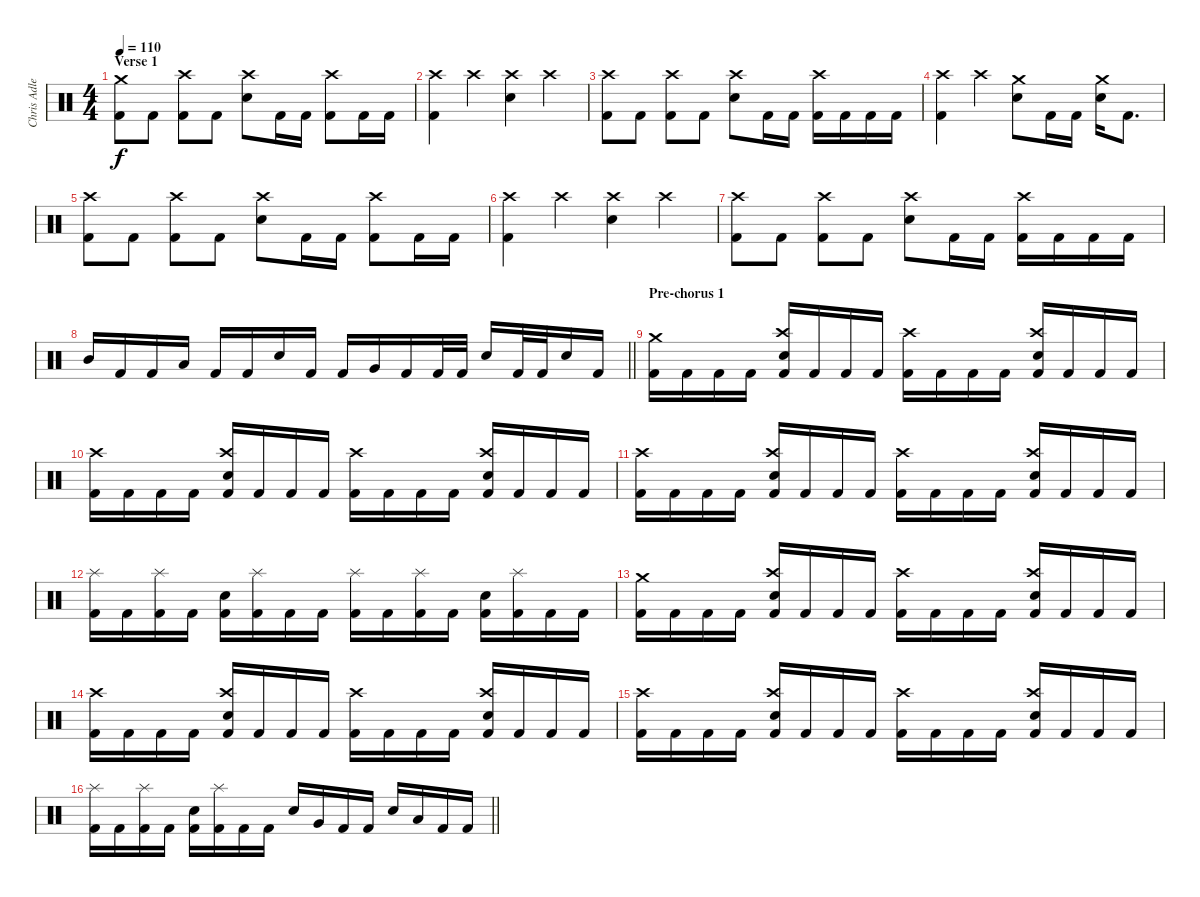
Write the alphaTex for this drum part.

\track ("Chris Adler" "Chris Adle") {instrument percussion}
\staff {score}
\articulation defaults
\ts (4 4)
\section ("" "Verse 1")
\tempo 110
\clef neutral
\ks c
("Crash medium (hit)" "Kick (hit) 2").8{dy f} "Kick (hit) 2".8 ("Crash high (hit)" "Kick (hit) 2").8 "Kick (hit) 2".8 ("Crash high (hit)" "Electric Snare (hit)").8 "Kick (hit) 2".16 "Kick (hit) 2".16 ("Crash high (hit)" "Kick (hit) 2").8 "Kick (hit) 2".16 "Kick (hit) 2".16 |
("Crash high (hit)" "Kick (hit) 2").4 "Crash high (hit)".4 ("Crash high (hit)" "Electric Snare (hit)").4 "Crash high (hit)".4 |
("Crash high (hit)" "Kick (hit) 2").8 "Kick (hit) 2".8 ("Crash high (hit)" "Kick (hit) 2").8 "Kick (hit) 2".8 ("Crash high (hit)" "Electric Snare (hit)").8 "Kick (hit) 2".16 "Kick (hit) 2".16 ("Crash high (hit)" "Kick (hit) 2").16 "Kick (hit) 2".16 "Kick (hit) 2".16 "Kick (hit) 2".16 |
("Crash high (hit)" "Kick (hit) 2").4 "Crash high (hit)".4 ("Crash medium (hit)" "Electric Snare (hit)").8 "Kick (hit) 2".16 "Kick (hit) 2".16 ("Crash medium (hit)" "Electric Snare (hit)").16 "Kick (hit) 2".8{d} |
("Crash high (hit)" "Kick (hit) 2").8 "Kick (hit) 2".8 ("Crash high (hit)" "Kick (hit) 2").8 "Kick (hit) 2".8 ("Crash high (hit)" "Electric Snare (hit)").8 "Kick (hit) 2".16 "Kick (hit) 2".16 ("Crash high (hit)" "Kick (hit) 2").8 "Kick (hit) 2".16 "Kick (hit) 2".16 |
("Crash high (hit)" "Kick (hit) 2").4 "Crash high (hit)".4 ("Crash high (hit)" "Electric Snare (hit)").4 "Crash high (hit)".4 |
("Crash high (hit)" "Kick (hit) 2").8 "Kick (hit) 2".8 ("Crash high (hit)" "Kick (hit) 2").8 "Kick (hit) 2".8 ("Crash high (hit)" "Electric Snare (hit)").8 "Kick (hit) 2".16 "Kick (hit) 2".16 ("Crash high (hit)" "Kick (hit) 2").16 "Kick (hit) 2".16 "Kick (hit) 2".16 "Kick (hit) 2".16 |
\barLineRight lightlight "Mid Tom (hit)".16 "Kick (hit) 2".16 "Kick (hit) 2".16 "Low Tom (hit)".16 "Kick (hit) 2".16 "Kick (hit) 2".16 "Electric Snare (hit)".16 "Kick (hit) 2".16 "Kick (hit) 2".16 "Very Low Tom (hit)".16 "Kick (hit) 2".16 "Kick (hit) 2".32 "Kick (hit) 2".32 "Electric Snare (hit)".16 "Kick (hit) 2".32 "Kick (hit) 2".32 "Electric Snare (hit)".16 "Kick (hit) 2".16
|
\section ("" "Pre-chorus 1")
("Crash medium (hit)" "Kick (hit) 2").16 "Kick (hit) 2".16 "Kick (hit) 2".16 "Kick (hit) 2".16 ("Crash high (hit)" "Electric Snare (hit)" "Kick (hit) 2").16 "Kick (hit) 2".16 "Kick (hit) 2".16 "Kick (hit) 2".16 ("Crash high (hit)" "Kick (hit) 2").16 "Kick (hit) 2".16 "Kick (hit) 2".16 "Kick (hit) 2".16 ("Crash high (hit)" "Electric Snare (hit)" "Kick (hit) 2").16 "Kick (hit) 2".16 "Kick (hit) 2".16 "Kick (hit) 2".16 |
("Crash high (hit)" "Kick (hit) 2").16 "Kick (hit) 2".16 "Kick (hit) 2".16 "Kick (hit) 2".16 ("Crash high (hit)" "Electric Snare (hit)" "Kick (hit) 2").16 "Kick (hit) 2".16 "Kick (hit) 2".16 "Kick (hit) 2".16 ("Crash high (hit)" "Kick (hit) 2").16 "Kick (hit) 2".16 "Kick (hit) 2".16 "Kick (hit) 2".16 ("Crash high (hit)" "Electric Snare (hit)" "Kick (hit) 2").16 "Kick (hit) 2".16 "Kick (hit) 2".16 "Kick (hit) 2".16 |
("Crash high (hit)" "Kick (hit) 2").16 "Kick (hit) 2".16 "Kick (hit) 2".16 "Kick (hit) 2".16 ("Crash high (hit)" "Electric Snare (hit)" "Kick (hit) 2").16 "Kick (hit) 2".16 "Kick (hit) 2".16 "Kick (hit) 2".16 ("Crash high (hit)" "Kick (hit) 2").16 "Kick (hit) 2".16 "Kick (hit) 2".16 "Kick (hit) 2".16 ("Crash high (hit)" "Electric Snare (hit)" "Kick (hit) 2").16 "Kick (hit) 2".16 "Kick (hit) 2".16 "Kick (hit) 2".16 |
("Splash (hit)" "Kick (hit) 2").16 "Kick (hit) 2".16 ("Splash (hit)" "Kick (hit) 2").16 "Kick (hit) 2".16 ("Electric Snare (hit)" "Kick (hit) 2").16 ("Splash (hit)" "Kick (hit) 2").16 "Kick (hit) 2".16 "Kick (hit) 2".16 ("Splash (hit)" "Kick (hit) 2").16 "Kick (hit) 2".16 ("Splash (hit)" "Kick (hit) 2").16 "Kick (hit) 2".16 ("Electric Snare (hit)" "Kick (hit) 2").16 ("Splash (hit)" "Kick (hit) 2").16 "Kick (hit) 2".16 "Kick (hit) 2".16 |
("Crash medium (hit)" "Kick (hit) 2").16 "Kick (hit) 2".16 "Kick (hit) 2".16 "Kick (hit) 2".16 ("Crash high (hit)" "Electric Snare (hit)" "Kick (hit) 2").16 "Kick (hit) 2".16 "Kick (hit) 2".16 "Kick (hit) 2".16 ("Crash high (hit)" "Kick (hit) 2").16 "Kick (hit) 2".16 "Kick (hit) 2".16 "Kick (hit) 2".16 ("Crash high (hit)" "Electric Snare (hit)" "Kick (hit) 2").16 "Kick (hit) 2".16 "Kick (hit) 2".16 "Kick (hit) 2".16 |
("Crash high (hit)" "Kick (hit) 2").16 "Kick (hit) 2".16 "Kick (hit) 2".16 "Kick (hit) 2".16 ("Crash high (hit)" "Electric Snare (hit)" "Kick (hit) 2").16 "Kick (hit) 2".16 "Kick (hit) 2".16 "Kick (hit) 2".16 ("Crash high (hit)" "Kick (hit) 2").16 "Kick (hit) 2".16 "Kick (hit) 2".16 "Kick (hit) 2".16 ("Crash high (hit)" "Electric Snare (hit)" "Kick (hit) 2").16 "Kick (hit) 2".16 "Kick (hit) 2".16 "Kick (hit) 2".16 |
("Crash high (hit)" "Kick (hit) 2").16 "Kick (hit) 2".16 "Kick (hit) 2".16 "Kick (hit) 2".16 ("Crash high (hit)" "Electric Snare (hit)" "Kick (hit) 2").16 "Kick (hit) 2".16 "Kick (hit) 2".16 "Kick (hit) 2".16 ("Crash high (hit)" "Kick (hit) 2").16 "Kick (hit) 2".16 "Kick (hit) 2".16 "Kick (hit) 2".16 ("Crash high (hit)" "Electric Snare (hit)" "Kick (hit) 2").16 "Kick (hit) 2".16 "Kick (hit) 2".16 "Kick (hit) 2".16 |
\barLineRight lightlight
("Splash (hit)" "Kick (hit) 2").16 "Kick (hit) 2".16 ("Splash (hit)" "Kick (hit) 2").16 "Kick (hit) 2".16 ("Electric Snare (hit)" "Kick (hit) 2").16 ("Splash (hit)" "Kick (hit) 2").16 "Kick (hit) 2".16 "Kick (hit) 2".16 "Electric Snare (hit)".16 "Very Low Tom (hit)".16 "Kick (hit) 2".16 "Kick (hit) 2".16 "Electric Snare (hit)".16 "Low Floor Tom (hit)".16 "Kick (hit) 2".16 "Kick (hit) 2".16
